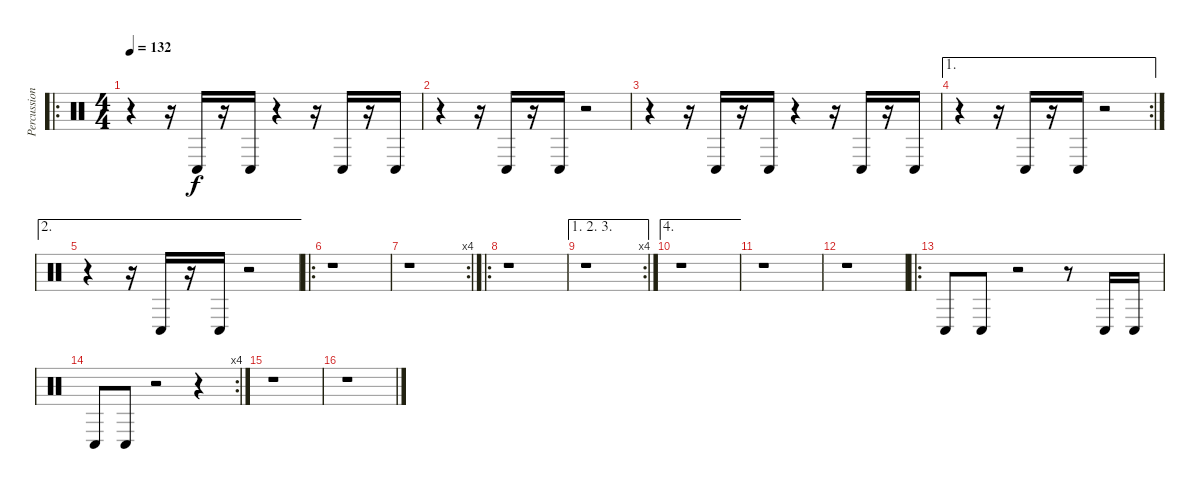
\track ("Percussion Rythm" "Percussion") {instrument percussion}
\staff {score}
\articulation defaults
\ro
\ts (4 4)
\tempo 132
\clef neutral
\ks c
r.4{dy f} r.16 "Conga low (hit)".16 r.16 "Conga low (hit)".16 r.4 r.16 "Conga low (hit)".16 r.16 "Conga low (hit)".16 |
r.4 r.16 "Conga low (hit)".16 r.16 "Conga low (hit)".16 r.2 |
r.4 r.16 "Conga low (hit)".16 r.16 "Conga low (hit)".16 r.4 r.16 "Conga low (hit)".16 r.16 "Conga low (hit)".16 |
\ae 1
\rc 2
r.4 r.16 "Conga low (hit)".16 r.16 "Conga low (hit)".16 r.2 |
\ae 2
r.4 r.16 "Conga low (hit)".16 r.16 "Conga low (hit)".16 r.2 |
\ro
r.1 |
\rc 4
r.1 |
\ro
r.1 |
\ae (1 2 3)
\rc 4
r.1 |
\ae 4
r.1 |
r.1 |
r.1 |
\ro "Conga low (hit)".8 "Conga low (hit)".8
r.2 r.8 "Conga low (hit)".16 "Conga low (hit)".16 |
\rc 4 "Conga low (hit)".8 "Conga low (hit)".8
r.2 r.4 |
r.1 |
r.1
